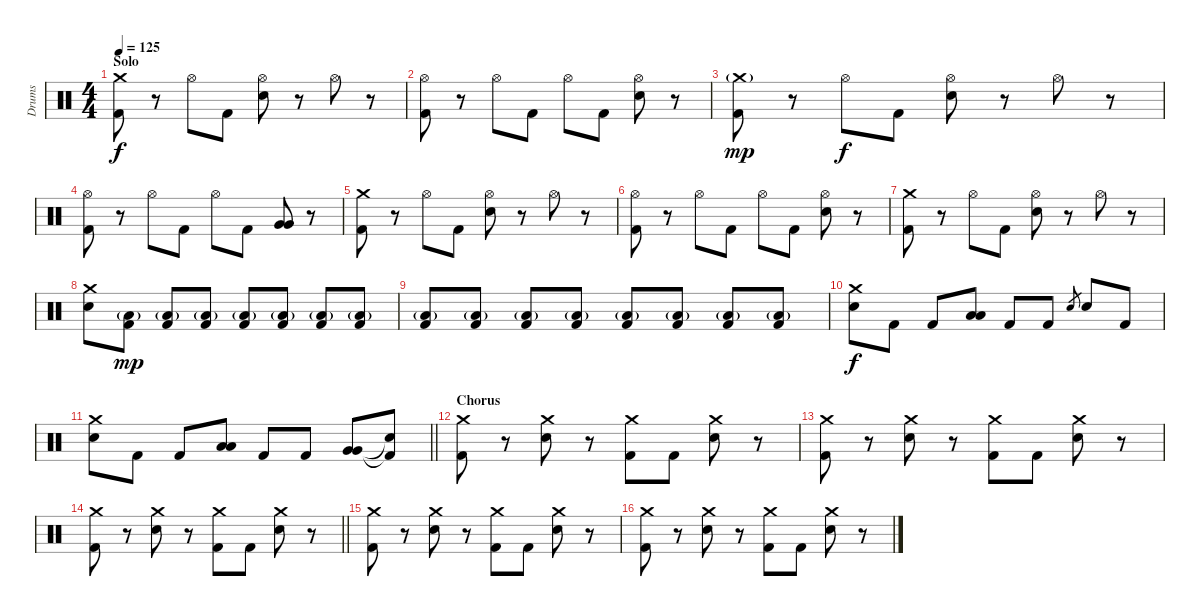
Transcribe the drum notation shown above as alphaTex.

\track ("Drums" "Drums") {instrument percussion}
\staff {score}
\articulation defaults
\ts (4 4)
\section ("" "Solo")
\tempo 125
\clef neutral
\ks c
("Crash medium (hit)" "Kick (hit) 2").8{dy f} r.8 "Hi-Hat (open)".8 "Kick (hit) 2".8 ("Hi-Hat (open)" "Electric Snare (hit)").8 r.8 "Hi-Hat (open)".8 r.8 |
("Hi-Hat (open)" "Kick (hit) 2").8 r.8 "Hi-Hat (open)".8 "Kick (hit) 2".8 "Hi-Hat (open)".8 "Kick (hit) 2".8 ("Hi-Hat (open)" "Electric Snare (hit)").8 r.8 |
("Crash medium (hit)"{g} "Kick (hit) 2").8{dy mp} r.8 "Hi-Hat (open)".8{dy f} "Kick (hit) 2".8 ("Hi-Hat (open)" "Electric Snare (hit)").8 r.8 "Hi-Hat (open)".8 r.8 |
("Hi-Hat (open)" "Kick (hit) 2").8 r.8 "Hi-Hat (open)".8 "Kick (hit) 2".8 "Hi-Hat (open)".8 "Kick (hit) 2".8 ("Very Low Tom (hit)" "Very Low Tom (hit)").8 r.8 |
("Crash medium (hit)" "Kick (hit) 2").8 r.8 "Hi-Hat (open)".8 "Kick (hit) 2".8 ("Hi-Hat (open)" "Electric Snare (hit)").8 r.8 "Hi-Hat (open)".8 r.8 |
("Hi-Hat (open)" "Kick (hit) 2").8 r.8 "Hi-Hat (open)".8 "Kick (hit) 2".8 "Hi-Hat (open)".8 "Kick (hit) 2".8 ("Hi-Hat (open)" "Electric Snare (hit)").8 r.8 |
("Crash medium (hit)" "Kick (hit) 2").8 r.8 "Hi-Hat (open)".8 "Kick (hit) 2".8 ("Hi-Hat (open)" "Electric Snare (hit)").8 r.8 "Hi-Hat (open)".8 r.8 |
("Crash medium (hit)" "Electric Snare (hit)").8 ("Low Floor Tom (hit)"{g} "Kick (hit) 2").8{dy mp} ("Low Floor Tom (hit)"{g} "Kick (hit) 2").8 ("Low Floor Tom (hit)"{g} "Kick (hit) 2").8 ("Low Floor Tom (hit)"{g} "Kick (hit) 2").8 ("Low Floor Tom (hit)"{g} "Kick (hit) 2").8 ("Low Floor Tom (hit)"{g} "Kick (hit) 2").8 ("Low Floor Tom (hit)"{g} "Kick (hit) 2").8 |
("Low Floor Tom (hit)"{g} "Kick (hit) 2").8 ("Low Floor Tom (hit)"{g} "Kick (hit) 2").8 ("Low Floor Tom (hit)"{g} "Kick (hit) 2").8 ("Low Floor Tom (hit)"{g} "Kick (hit) 2").8 ("Low Floor Tom (hit)"{g} "Kick (hit) 2").8 ("Low Floor Tom (hit)"{g} "Kick (hit) 2").8 ("Low Floor Tom (hit)"{g} "Kick (hit) 2").8 ("Low Floor Tom (hit)"{g} "Kick (hit) 2").8 |
("Crash medium (hit)" "Electric Snare (hit)").8{dy f} "Kick (hit) 2".8 "Kick (hit) 2".8 ("Low Tom (hit)" "Low Tom (hit)").8 "Kick (hit) 2".8 "Kick (hit) 2".8 "Electric Snare (hit)".8{gr} "Electric Snare (hit)".8 "Kick (hit) 2".8 |
\barLineRight lightlight
("Crash medium (hit)" "Electric Snare (hit)").8 "Kick (hit) 2".8 "Kick (hit) 2".8 ("Low Tom (hit)" "Low Tom (hit)").8 "Kick (hit) 2".8 "Kick (hit) 2".8 ("Very Low Tom (hit)" "Very Low Tom (hit)").8 ("Snare (hit)"{t} "Kick (hit) 2"{t}).8 |
\section ("" "Chorus")
("Crash medium (hit)" "Kick (hit) 2").8 r.8 ("Crash medium (hit)" "Electric Snare (hit)").8 r.8 ("Crash medium (hit)" "Kick (hit) 2").8 "Kick (hit) 2".8 ("Crash medium (hit)" "Electric Snare (hit)").8 r.8 |
("Crash medium (hit)" "Kick (hit) 2").8 r.8 ("Crash medium (hit)" "Electric Snare (hit)").8 r.8 ("Crash medium (hit)" "Kick (hit) 2").8 "Kick (hit) 2".8 ("Crash medium (hit)" "Electric Snare (hit)").8 r.8 |
\barLineRight lightlight
("Crash medium (hit)" "Kick (hit) 2").8 r.8 ("Crash medium (hit)" "Electric Snare (hit)").8 r.8 ("Crash medium (hit)" "Kick (hit) 2").8 "Kick (hit) 2".8 ("Crash medium (hit)" "Electric Snare (hit)").8 r.8 |
("Crash medium (hit)" "Kick (hit) 2").8 r.8 ("Crash medium (hit)" "Electric Snare (hit)").8 r.8 ("Crash medium (hit)" "Kick (hit) 2").8 "Kick (hit) 2".8 ("Crash medium (hit)" "Electric Snare (hit)").8 r.8 |
("Crash medium (hit)" "Kick (hit) 2").8 r.8 ("Crash medium (hit)" "Electric Snare (hit)").8 r.8 ("Crash medium (hit)" "Kick (hit) 2").8 "Kick (hit) 2".8 ("Crash medium (hit)" "Electric Snare (hit)").8 r.8
